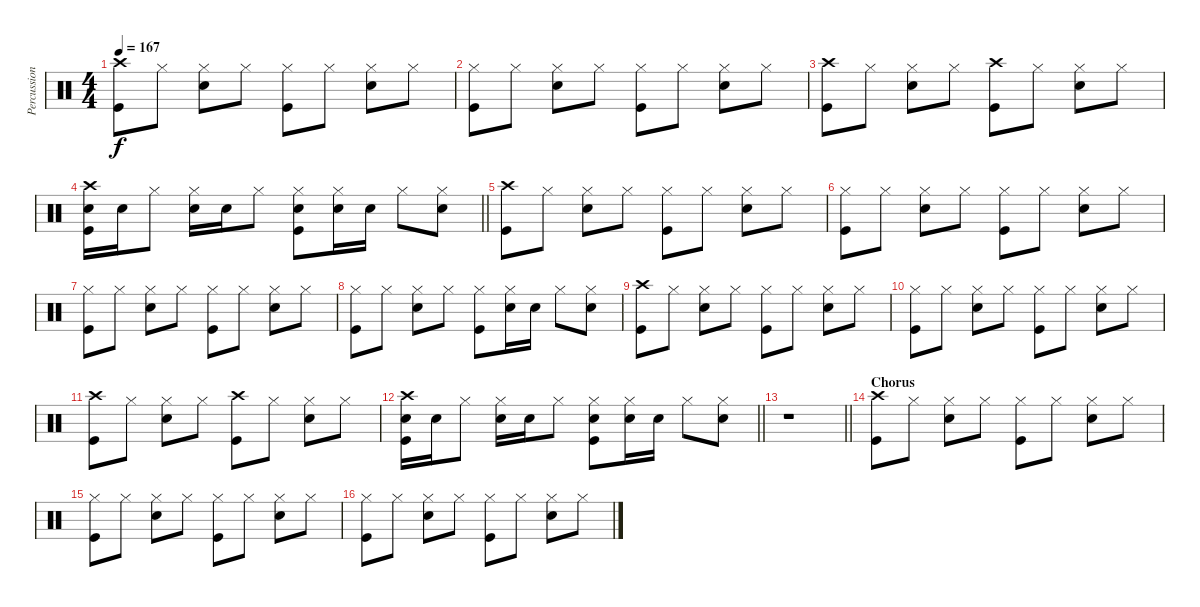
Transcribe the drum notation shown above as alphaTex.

\track ("Percussion" "Percussion") {instrument percussion}
\staff {score}
\articulation defaults
\ts (4 4)
\tempo 167
\clef neutral
\ks c
("Crash high (hit)" "Kick (hit)").8{dy f} "Hi-Hat (closed)".8 ("Hi-Hat (closed)" "Electric Snare (hit)").8 "Hi-Hat (closed)".8 ("Hi-Hat (closed)" "Kick (hit)").8 "Hi-Hat (closed)".8 ("Hi-Hat (closed)" "Electric Snare (hit)").8 "Hi-Hat (closed)".8 |
("Hi-Hat (closed)" "Kick (hit)").8 "Hi-Hat (closed)".8 ("Hi-Hat (closed)" "Electric Snare (hit)").8 "Hi-Hat (closed)".8 ("Hi-Hat (closed)" "Kick (hit)").8 "Hi-Hat (closed)".8 ("Hi-Hat (closed)" "Electric Snare (hit)").8 "Hi-Hat (closed)".8 |
("Crash high (hit)" "Kick (hit)").8 "Hi-Hat (closed)".8 ("Hi-Hat (closed)" "Electric Snare (hit)").8 "Hi-Hat (closed)".8 ("Crash high (hit)" "Kick (hit)").8 "Hi-Hat (closed)".8 ("Hi-Hat (closed)" "Electric Snare (hit)").8 "Hi-Hat (closed)".8 |
\barLineRight lightlight
("Crash high (hit)" "Electric Snare (hit)" "Kick (hit)").16 "Electric Snare (hit)".16 "Hi-Hat (closed)".8 ("Hi-Hat (closed)" "Electric Snare (hit)").16 "Electric Snare (hit)".16 "Hi-Hat (closed)".8 ("Hi-Hat (closed)" "Electric Snare (hit)" "Kick (hit)").8 ("Hi-Hat (closed)" "Electric Snare (hit)").16 "Electric Snare (hit)".16 "Hi-Hat (closed)".8 ("Hi-Hat (closed)" "Electric Snare (hit)").8 |
("Crash high (hit)" "Kick (hit)").8 "Hi-Hat (closed)".8 ("Hi-Hat (closed)" "Electric Snare (hit)").8 "Hi-Hat (closed)".8 ("Hi-Hat (closed)" "Kick (hit)").8 "Hi-Hat (closed)".8 ("Hi-Hat (closed)" "Electric Snare (hit)").8 "Hi-Hat (closed)".8 |
("Hi-Hat (closed)" "Kick (hit)").8 "Hi-Hat (closed)".8 ("Hi-Hat (closed)" "Electric Snare (hit)").8 "Hi-Hat (closed)".8 ("Hi-Hat (closed)" "Kick (hit)").8 "Hi-Hat (closed)".8 ("Hi-Hat (closed)" "Electric Snare (hit)").8 "Hi-Hat (closed)".8 |
("Hi-Hat (closed)" "Kick (hit)").8 "Hi-Hat (closed)".8 ("Hi-Hat (closed)" "Electric Snare (hit)").8 "Hi-Hat (closed)".8 ("Hi-Hat (closed)" "Kick (hit)").8 "Hi-Hat (closed)".8 ("Hi-Hat (closed)" "Electric Snare (hit)").8 "Hi-Hat (closed)".8 |
("Hi-Hat (closed)" "Kick (hit)").8 "Hi-Hat (closed)".8 ("Hi-Hat (closed)" "Electric Snare (hit)").8 "Hi-Hat (closed)".8 ("Hi-Hat (closed)" "Kick (hit)").8 ("Hi-Hat (closed)" "Electric Snare (hit)").16 "Electric Snare (hit)".16 "Hi-Hat (closed)".8 ("Hi-Hat (closed)" "Electric Snare (hit)").8 |
("Crash high (hit)" "Kick (hit)").8 "Hi-Hat (closed)".8 ("Hi-Hat (closed)" "Electric Snare (hit)").8 "Hi-Hat (closed)".8 ("Hi-Hat (closed)" "Kick (hit)").8 "Hi-Hat (closed)".8 ("Hi-Hat (closed)" "Electric Snare (hit)").8 "Hi-Hat (closed)".8 |
("Hi-Hat (closed)" "Kick (hit)").8 "Hi-Hat (closed)".8 ("Hi-Hat (closed)" "Electric Snare (hit)").8 "Hi-Hat (closed)".8 ("Hi-Hat (closed)" "Kick (hit)").8 "Hi-Hat (closed)".8 ("Hi-Hat (closed)" "Electric Snare (hit)").8 "Hi-Hat (closed)".8 |
("Crash high (hit)" "Kick (hit)").8 "Hi-Hat (closed)".8 ("Hi-Hat (closed)" "Electric Snare (hit)").8 "Hi-Hat (closed)".8 ("Crash high (hit)" "Kick (hit)").8 "Hi-Hat (closed)".8 ("Hi-Hat (closed)" "Electric Snare (hit)").8 "Hi-Hat (closed)".8 |
\barLineRight lightlight
("Crash high (hit)" "Electric Snare (hit)" "Kick (hit)").16 "Electric Snare (hit)".16 "Hi-Hat (closed)".8 ("Hi-Hat (closed)" "Electric Snare (hit)").16 "Electric Snare (hit)".16 "Hi-Hat (closed)".8 ("Hi-Hat (closed)" "Electric Snare (hit)" "Kick (hit)").8 ("Hi-Hat (closed)" "Electric Snare (hit)").16 "Electric Snare (hit)".16 "Hi-Hat (closed)".8 ("Hi-Hat (closed)" "Electric Snare (hit)").8 |
\barLineRight lightlight
r.1 |
\section ("" "Chorus")
("Crash high (hit)" "Kick (hit)").8 "Hi-Hat (closed)".8 ("Hi-Hat (closed)" "Electric Snare (hit)").8 "Hi-Hat (closed)".8 ("Hi-Hat (closed)" "Kick (hit)").8 "Hi-Hat (closed)".8 ("Hi-Hat (closed)" "Electric Snare (hit)").8 "Hi-Hat (closed)".8 |
("Hi-Hat (closed)" "Kick (hit)").8 "Hi-Hat (closed)".8 ("Hi-Hat (closed)" "Electric Snare (hit)").8 "Hi-Hat (closed)".8 ("Hi-Hat (closed)" "Kick (hit)").8 "Hi-Hat (closed)".8 ("Hi-Hat (closed)" "Electric Snare (hit)").8 "Hi-Hat (closed)".8 |
("Hi-Hat (closed)" "Kick (hit)").8 "Hi-Hat (closed)".8 ("Hi-Hat (closed)" "Electric Snare (hit)").8 "Hi-Hat (closed)".8 ("Hi-Hat (closed)" "Kick (hit)").8 "Hi-Hat (closed)".8 ("Hi-Hat (closed)" "Electric Snare (hit)").8 "Hi-Hat (closed)".8
